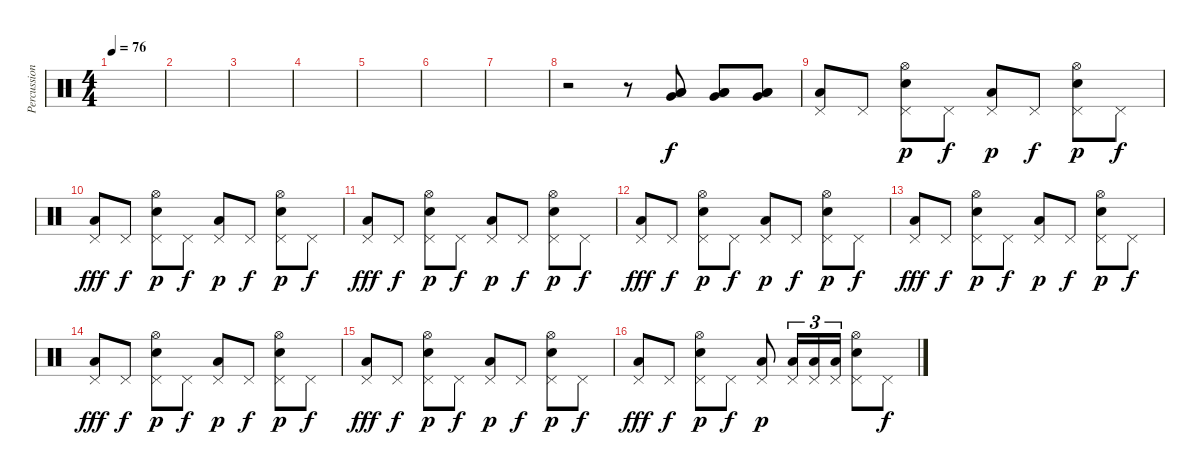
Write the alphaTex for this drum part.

\track ("Percussion" "Percussion") {instrument percussion}
\staff {score}
\articulation defaults
\ts (4 4)
\tempo 76
\clef neutral
\ks c
|
|
|
|
|
|
|
r.2 r.8 ("Very Low Tom (hit)" "Low Floor Tom (hit)" "Low Tom (hit)").8 ("Very Low Tom (hit)" "Low Floor Tom (hit)" "Low Tom (hit)").8 ("Very Low Tom (hit)" "Low Floor Tom (hit)" "Low Tom (hit)").8 |
("Low Floor Tom (hit)" "Pedal Hi-Hat (hit)").8 "Pedal Hi-Hat (hit)".8{dy f} ("Electric Snare (hit)" "Pedal Hi-Hat (hit)" "Hi-Hat (open)").8{dy p} "Pedal Hi-Hat (hit)".8{dy f} ("Low Floor Tom (hit)" "Pedal Hi-Hat (hit)").8{dy p} "Pedal Hi-Hat (hit)".8{dy f} ("Electric Snare (hit)" "Pedal Hi-Hat (hit)" "Hi-Hat (open)").8{dy p} "Pedal Hi-Hat (hit)".8{dy f} |
("Low Floor Tom (hit)" "Pedal Hi-Hat (hit)").8{dy fff} "Pedal Hi-Hat (hit)".8{dy f} ("Electric Snare (hit)" "Pedal Hi-Hat (hit)" "Hi-Hat (open)").8{dy p} "Pedal Hi-Hat (hit)".8{dy f} ("Low Floor Tom (hit)" "Pedal Hi-Hat (hit)").8{dy p} "Pedal Hi-Hat (hit)".8{dy f} ("Electric Snare (hit)" "Pedal Hi-Hat (hit)" "Hi-Hat (open)").8{dy p} "Pedal Hi-Hat (hit)".8{dy f} |
("Low Floor Tom (hit)" "Pedal Hi-Hat (hit)").8{dy fff} "Pedal Hi-Hat (hit)".8{dy f} ("Electric Snare (hit)" "Pedal Hi-Hat (hit)" "Hi-Hat (open)").8{dy p} "Pedal Hi-Hat (hit)".8{dy f} ("Low Floor Tom (hit)" "Pedal Hi-Hat (hit)").8{dy p} "Pedal Hi-Hat (hit)".8{dy f} ("Electric Snare (hit)" "Pedal Hi-Hat (hit)" "Hi-Hat (open)").8{dy p} "Pedal Hi-Hat (hit)".8{dy f} |
("Low Floor Tom (hit)" "Pedal Hi-Hat (hit)").8{dy fff} "Pedal Hi-Hat (hit)".8{dy f} ("Electric Snare (hit)" "Pedal Hi-Hat (hit)" "Hi-Hat (open)").8{dy p} "Pedal Hi-Hat (hit)".8{dy f} ("Low Floor Tom (hit)" "Pedal Hi-Hat (hit)").8{dy p} "Pedal Hi-Hat (hit)".8{dy f} ("Electric Snare (hit)" "Pedal Hi-Hat (hit)" "Hi-Hat (open)").8{dy p} "Pedal Hi-Hat (hit)".8{dy f} |
("Low Floor Tom (hit)" "Pedal Hi-Hat (hit)").8{dy fff} "Pedal Hi-Hat (hit)".8{dy f} ("Electric Snare (hit)" "Pedal Hi-Hat (hit)" "Hi-Hat (open)").8{dy p} "Pedal Hi-Hat (hit)".8{dy f} ("Low Floor Tom (hit)" "Pedal Hi-Hat (hit)").8{dy p} "Pedal Hi-Hat (hit)".8{dy f} ("Electric Snare (hit)" "Pedal Hi-Hat (hit)" "Hi-Hat (open)").8{dy p} "Pedal Hi-Hat (hit)".8{dy f} |
("Low Floor Tom (hit)" "Pedal Hi-Hat (hit)").8{dy fff} "Pedal Hi-Hat (hit)".8{dy f} ("Electric Snare (hit)" "Pedal Hi-Hat (hit)" "Hi-Hat (open)").8{dy p} "Pedal Hi-Hat (hit)".8{dy f} ("Low Floor Tom (hit)" "Pedal Hi-Hat (hit)").8{dy p} "Pedal Hi-Hat (hit)".8{dy f} ("Electric Snare (hit)" "Pedal Hi-Hat (hit)" "Hi-Hat (open)").8{dy p} "Pedal Hi-Hat (hit)".8{dy f} |
("Low Floor Tom (hit)" "Pedal Hi-Hat (hit)").8{dy fff} "Pedal Hi-Hat (hit)".8{dy f} ("Electric Snare (hit)" "Pedal Hi-Hat (hit)" "Hi-Hat (open)").8{dy p} "Pedal Hi-Hat (hit)".8{dy f} ("Low Floor Tom (hit)" "Pedal Hi-Hat (hit)").8{dy p} "Pedal Hi-Hat (hit)".8{dy f} ("Electric Snare (hit)" "Pedal Hi-Hat (hit)" "Hi-Hat (open)").8{dy p} "Pedal Hi-Hat (hit)".8{dy f} |
("Low Floor Tom (hit)" "Pedal Hi-Hat (hit)").8{dy fff} "Pedal Hi-Hat (hit)".8{dy f} ("Electric Snare (hit)" "Pedal Hi-Hat (hit)" "Hi-Hat (open)").8{dy p} "Pedal Hi-Hat (hit)".8{dy f} ("Low Floor Tom (hit)" "Pedal Hi-Hat (hit)").8{dy p} ("Low Floor Tom (hit)" "Pedal Hi-Hat (hit)").16{tu (3 2)} ("Low Floor Tom (hit)" "Pedal Hi-Hat (hit)").16{tu (3 2)} ("Low Floor Tom (hit)" "Pedal Hi-Hat (hit)").16{tu (3 2)} ("Electric Snare (hit)" "Pedal Hi-Hat (hit)" "Hi-Hat (open)").8 "Pedal Hi-Hat (hit)".8{dy f}
